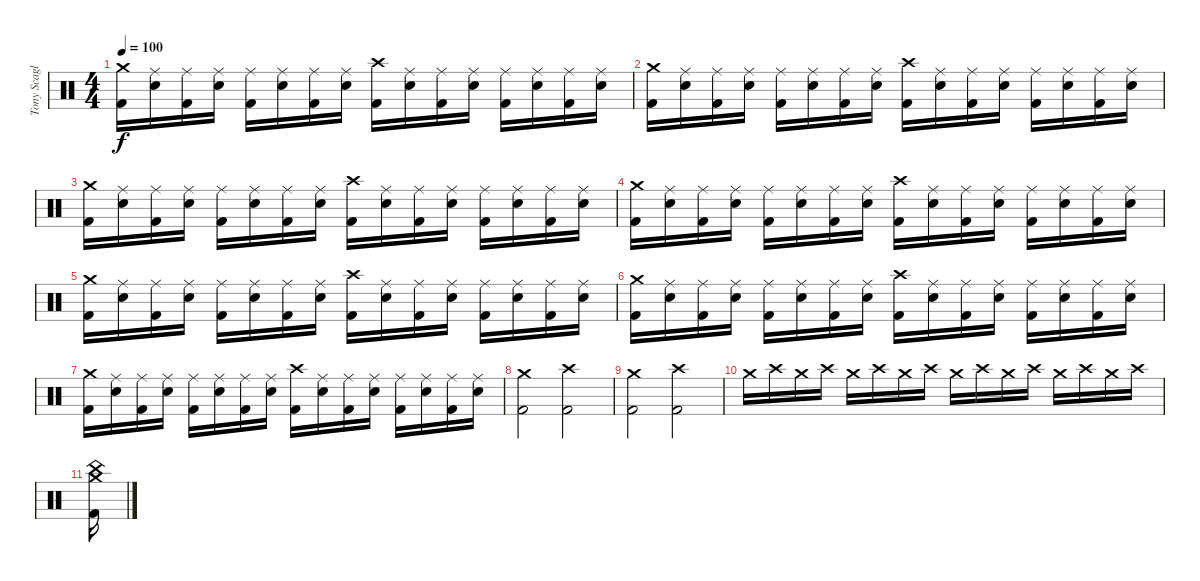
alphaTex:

\track ("Tony Scaglione" "Tony Scagl") {instrument percussion}
\staff {score}
\articulation defaults
\ts (4 4)
\tempo 100
\clef neutral
\ks c
("Crash medium (hit)" "Kick (hit) 2").16{dy f} ("Ride (middle)" "Snare (hit) 2").16 ("Ride (middle)" "Kick (hit) 2").16 ("Ride (middle)" "Snare (hit) 2").16 ("Ride (middle)" "Kick (hit) 2").16 ("Ride (middle)" "Snare (hit) 2").16 ("Ride (middle)" "Kick (hit) 2").16 ("Ride (middle)" "Snare (hit) 2").16 ("Crash high (hit)" "Kick (hit) 2").16 ("Ride (middle)" "Snare (hit) 2").16 ("Ride (middle)" "Kick (hit) 2").16 ("Ride (middle)" "Snare (hit) 2").16 ("Ride (middle)" "Kick (hit) 2").16 ("Ride (middle)" "Snare (hit) 2").16 ("Ride (middle)" "Kick (hit) 2").16 ("Ride (middle)" "Snare (hit) 2").16 |
("Crash medium (hit)" "Kick (hit) 2").16 ("Ride (middle)" "Snare (hit) 2").16 ("Ride (middle)" "Kick (hit) 2").16 ("Ride (middle)" "Snare (hit) 2").16 ("Ride (middle)" "Kick (hit) 2").16 ("Ride (middle)" "Snare (hit) 2").16 ("Ride (middle)" "Kick (hit) 2").16 ("Ride (middle)" "Snare (hit) 2").16 ("Crash high (hit)" "Kick (hit) 2").16 ("Ride (middle)" "Snare (hit) 2").16 ("Ride (middle)" "Kick (hit) 2").16 ("Ride (middle)" "Snare (hit) 2").16 ("Ride (middle)" "Kick (hit) 2").16 ("Ride (middle)" "Snare (hit) 2").16 ("Ride (middle)" "Kick (hit) 2").16 ("Ride (middle)" "Snare (hit) 2").16 |
("Crash medium (hit)" "Kick (hit) 2").16 ("Ride (middle)" "Snare (hit) 2").16 ("Ride (middle)" "Kick (hit) 2").16 ("Ride (middle)" "Snare (hit) 2").16 ("Ride (middle)" "Kick (hit) 2").16 ("Ride (middle)" "Snare (hit) 2").16 ("Ride (middle)" "Kick (hit) 2").16 ("Ride (middle)" "Snare (hit) 2").16 ("Crash high (hit)" "Kick (hit) 2").16 ("Ride (middle)" "Snare (hit) 2").16 ("Ride (middle)" "Kick (hit) 2").16 ("Ride (middle)" "Snare (hit) 2").16 ("Ride (middle)" "Kick (hit) 2").16 ("Ride (middle)" "Snare (hit) 2").16 ("Ride (middle)" "Kick (hit) 2").16 ("Ride (middle)" "Snare (hit) 2").16 |
("Crash medium (hit)" "Kick (hit) 2").16 ("Ride (middle)" "Snare (hit) 2").16 ("Ride (middle)" "Kick (hit) 2").16 ("Ride (middle)" "Snare (hit) 2").16 ("Ride (middle)" "Kick (hit) 2").16 ("Ride (middle)" "Snare (hit) 2").16 ("Ride (middle)" "Kick (hit) 2").16 ("Ride (middle)" "Snare (hit) 2").16 ("Crash high (hit)" "Kick (hit) 2").16 ("Ride (middle)" "Snare (hit) 2").16 ("Ride (middle)" "Kick (hit) 2").16 ("Ride (middle)" "Snare (hit) 2").16 ("Ride (middle)" "Kick (hit) 2").16 ("Ride (middle)" "Snare (hit) 2").16 ("Ride (middle)" "Kick (hit) 2").16 ("Ride (middle)" "Snare (hit) 2").16 |
("Crash medium (hit)" "Kick (hit) 2").16 ("Ride (middle)" "Snare (hit) 2").16 ("Ride (middle)" "Kick (hit) 2").16 ("Ride (middle)" "Snare (hit) 2").16 ("Ride (middle)" "Kick (hit) 2").16 ("Ride (middle)" "Snare (hit) 2").16 ("Ride (middle)" "Kick (hit) 2").16 ("Ride (middle)" "Snare (hit) 2").16 ("Crash high (hit)" "Kick (hit) 2").16 ("Ride (middle)" "Snare (hit) 2").16 ("Ride (middle)" "Kick (hit) 2").16 ("Ride (middle)" "Snare (hit) 2").16 ("Ride (middle)" "Kick (hit) 2").16 ("Ride (middle)" "Snare (hit) 2").16 ("Ride (middle)" "Kick (hit) 2").16 ("Ride (middle)" "Snare (hit) 2").16 |
("Crash medium (hit)" "Kick (hit) 2").16 ("Ride (middle)" "Snare (hit) 2").16 ("Ride (middle)" "Kick (hit) 2").16 ("Ride (middle)" "Snare (hit) 2").16 ("Ride (middle)" "Kick (hit) 2").16 ("Ride (middle)" "Snare (hit) 2").16 ("Ride (middle)" "Kick (hit) 2").16 ("Ride (middle)" "Snare (hit) 2").16 ("Crash high (hit)" "Kick (hit) 2").16 ("Ride (middle)" "Snare (hit) 2").16 ("Ride (middle)" "Kick (hit) 2").16 ("Ride (middle)" "Snare (hit) 2").16 ("Ride (middle)" "Kick (hit) 2").16 ("Ride (middle)" "Snare (hit) 2").16 ("Ride (middle)" "Kick (hit) 2").16 ("Ride (middle)" "Snare (hit) 2").16 |
("Crash medium (hit)" "Kick (hit) 2").16 ("Ride (middle)" "Snare (hit) 2").16 ("Ride (middle)" "Kick (hit) 2").16 ("Ride (middle)" "Snare (hit) 2").16 ("Ride (middle)" "Kick (hit) 2").16 ("Ride (middle)" "Snare (hit) 2").16 ("Ride (middle)" "Kick (hit) 2").16 ("Ride (middle)" "Snare (hit) 2").16 ("Crash high (hit)" "Kick (hit) 2").16 ("Ride (middle)" "Snare (hit) 2").16 ("Ride (middle)" "Kick (hit) 2").16 ("Ride (middle)" "Snare (hit) 2").16 ("Ride (middle)" "Kick (hit) 2").16 ("Ride (middle)" "Snare (hit) 2").16 ("Ride (middle)" "Kick (hit) 2").16 ("Ride (middle)" "Snare (hit) 2").16 |
("Crash medium (hit)" "Kick (hit) 2").2 ("Kick (hit) 2" "Crash high (hit)").2 |
("Crash medium (hit)" "Kick (hit) 2").2 ("Crash high (hit)" "Kick (hit) 2").2 |
"Crash medium (hit)".16 "Crash high (hit)".16 "Crash medium (hit)".16 "Crash high (hit)".16 "Crash medium (hit)".16 "Crash high (hit)".16 "Crash medium (hit)".16 "Crash high (hit)".16 "Crash medium (hit)".16 "Crash high (hit)".16 "Crash medium (hit)".16 "Crash high (hit)".16 "Crash medium (hit)".16 "Crash high (hit)".16 "Crash medium (hit)".16 "Crash high (hit)".16 |
("China (hit)" "Crash medium (hit)" "Kick (hit) 2").16
